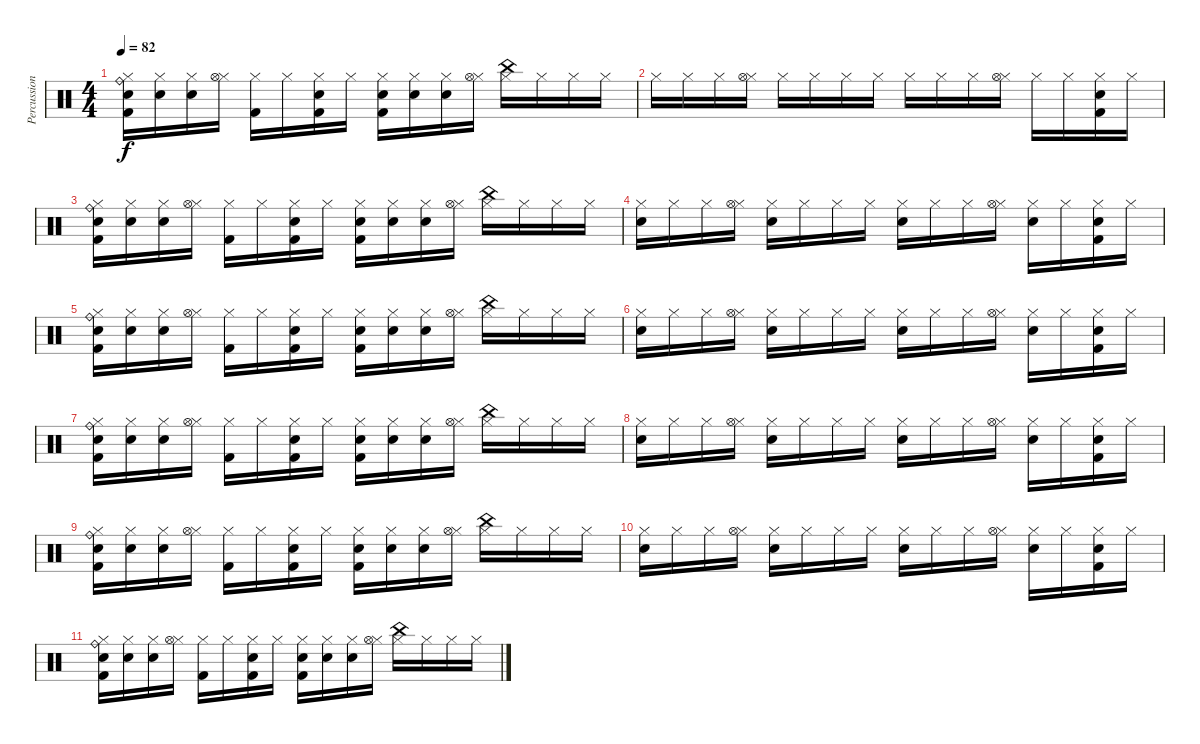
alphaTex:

\track ("Percussions" "Percussion") {instrument percussion}
\staff {score}
\articulation defaults
\ts (4 4)
\tempo 82
\clef neutral
\ks c
("Ride (bell)" "Hi-Hat (closed)" "Electric Snare (hit)" "Kick (hit) 2").16{dy f} ("Hi-Hat (closed)" "Electric Snare (hit)").16 ("Hi-Hat (closed)" "Electric Snare (hit)").16 ("Hi-Hat (closed)" "Hi-Hat (open)").16 ("Hi-Hat (closed)" "Kick (hit) 2").16 "Hi-Hat (closed)".16 ("Hi-Hat (closed)" "Electric Snare (hit)" "Kick (hit) 2").16 "Hi-Hat (closed)".16 ("Hi-Hat (closed)" "Electric Snare (hit)" "Kick (hit) 2").16 ("Hi-Hat (closed)" "Electric Snare (hit)").16 ("Hi-Hat (closed)" "Electric Snare (hit)").16 ("Hi-Hat (closed)" "Hi-Hat (open)").16 ("Hi-Hat (closed)" "China (hit)").16 "Hi-Hat (closed)".16 "Hi-Hat (closed)".16 "Hi-Hat (closed)".16 |
"Hi-Hat (closed)".16 "Hi-Hat (closed)".16 "Hi-Hat (closed)".16 ("Hi-Hat (closed)" "Hi-Hat (open)").16 "Hi-Hat (closed)".16 "Hi-Hat (closed)".16 "Hi-Hat (closed)".16 "Hi-Hat (closed)".16 "Hi-Hat (closed)".16 "Hi-Hat (closed)".16 "Hi-Hat (closed)".16 ("Hi-Hat (closed)" "Hi-Hat (open)").16 "Hi-Hat (closed)".16 "Hi-Hat (closed)".16 ("Hi-Hat (closed)" "Electric Snare (hit)" "Kick (hit) 2").16 "Hi-Hat (closed)".16 |
("Ride (bell)" "Hi-Hat (closed)" "Electric Snare (hit)" "Kick (hit) 2").16 ("Hi-Hat (closed)" "Electric Snare (hit)").16 ("Hi-Hat (closed)" "Electric Snare (hit)").16 ("Hi-Hat (closed)" "Hi-Hat (open)").16 ("Hi-Hat (closed)" "Kick (hit) 2").16 "Hi-Hat (closed)".16 ("Hi-Hat (closed)" "Electric Snare (hit)" "Kick (hit) 2").16 "Hi-Hat (closed)".16 ("Hi-Hat (closed)" "Electric Snare (hit)" "Kick (hit) 2").16 ("Hi-Hat (closed)" "Electric Snare (hit)").16 ("Hi-Hat (closed)" "Electric Snare (hit)").16 ("Hi-Hat (closed)" "Hi-Hat (open)").16 ("Hi-Hat (closed)" "China (hit)").16 "Hi-Hat (closed)".16 "Hi-Hat (closed)".16 "Hi-Hat (closed)".16 |
("Hi-Hat (closed)" "Snare (hit) 2").16 "Hi-Hat (closed)".16 "Hi-Hat (closed)".16 ("Hi-Hat (closed)" "Hi-Hat (open)").16 ("Hi-Hat (closed)" "Snare (hit) 2").16 "Hi-Hat (closed)".16 "Hi-Hat (closed)".16 "Hi-Hat (closed)".16 ("Hi-Hat (closed)" "Snare (hit) 2").16 "Hi-Hat (closed)".16 "Hi-Hat (closed)".16 ("Hi-Hat (closed)" "Hi-Hat (open)").16 ("Hi-Hat (closed)" "Snare (hit) 2").16 "Hi-Hat (closed)".16 ("Hi-Hat (closed)" "Electric Snare (hit)" "Kick (hit) 2").16 "Hi-Hat (closed)".16 |
("Ride (bell)" "Hi-Hat (closed)" "Electric Snare (hit)" "Kick (hit) 2").16 ("Hi-Hat (closed)" "Electric Snare (hit)").16 ("Hi-Hat (closed)" "Electric Snare (hit)").16 ("Hi-Hat (closed)" "Hi-Hat (open)").16 ("Hi-Hat (closed)" "Kick (hit) 2").16 "Hi-Hat (closed)".16 ("Hi-Hat (closed)" "Electric Snare (hit)" "Kick (hit) 2").16 "Hi-Hat (closed)".16 ("Hi-Hat (closed)" "Electric Snare (hit)" "Kick (hit) 2").16 ("Hi-Hat (closed)" "Electric Snare (hit)").16 ("Hi-Hat (closed)" "Electric Snare (hit)").16 ("Hi-Hat (closed)" "Hi-Hat (open)").16 ("Hi-Hat (closed)" "China (hit)").16 "Hi-Hat (closed)".16 "Hi-Hat (closed)".16 "Hi-Hat (closed)".16 |
("Hi-Hat (closed)" "Snare (hit) 2").16 "Hi-Hat (closed)".16 "Hi-Hat (closed)".16 ("Hi-Hat (closed)" "Hi-Hat (open)").16 ("Hi-Hat (closed)" "Snare (hit) 2").16 "Hi-Hat (closed)".16 "Hi-Hat (closed)".16 "Hi-Hat (closed)".16 ("Hi-Hat (closed)" "Snare (hit) 2").16 "Hi-Hat (closed)".16 "Hi-Hat (closed)".16 ("Hi-Hat (closed)" "Hi-Hat (open)").16 ("Hi-Hat (closed)" "Snare (hit) 2").16 "Hi-Hat (closed)".16 ("Hi-Hat (closed)" "Electric Snare (hit)" "Kick (hit) 2").16 "Hi-Hat (closed)".16 |
("Ride (bell)" "Hi-Hat (closed)" "Electric Snare (hit)" "Kick (hit) 2").16 ("Hi-Hat (closed)" "Electric Snare (hit)").16 ("Hi-Hat (closed)" "Electric Snare (hit)").16 ("Hi-Hat (closed)" "Hi-Hat (open)").16 ("Hi-Hat (closed)" "Kick (hit) 2").16 "Hi-Hat (closed)".16 ("Hi-Hat (closed)" "Electric Snare (hit)" "Kick (hit) 2").16 "Hi-Hat (closed)".16 ("Hi-Hat (closed)" "Electric Snare (hit)" "Kick (hit) 2").16 ("Hi-Hat (closed)" "Electric Snare (hit)").16 ("Hi-Hat (closed)" "Electric Snare (hit)").16 ("Hi-Hat (closed)" "Hi-Hat (open)").16 ("Hi-Hat (closed)" "China (hit)").16 "Hi-Hat (closed)".16 "Hi-Hat (closed)".16 "Hi-Hat (closed)".16 |
("Hi-Hat (closed)" "Snare (hit) 2").16 "Hi-Hat (closed)".16 "Hi-Hat (closed)".16 ("Hi-Hat (closed)" "Hi-Hat (open)").16 ("Hi-Hat (closed)" "Snare (hit) 2").16 "Hi-Hat (closed)".16 "Hi-Hat (closed)".16 "Hi-Hat (closed)".16 ("Hi-Hat (closed)" "Snare (hit) 2").16 "Hi-Hat (closed)".16 "Hi-Hat (closed)".16 ("Hi-Hat (closed)" "Hi-Hat (open)").16 ("Hi-Hat (closed)" "Snare (hit) 2").16 "Hi-Hat (closed)".16 ("Hi-Hat (closed)" "Electric Snare (hit)" "Kick (hit) 2").16 "Hi-Hat (closed)".16 |
("Ride (bell)" "Hi-Hat (closed)" "Electric Snare (hit)" "Kick (hit) 2").16 ("Hi-Hat (closed)" "Electric Snare (hit)").16 ("Hi-Hat (closed)" "Electric Snare (hit)").16 ("Hi-Hat (closed)" "Hi-Hat (open)").16 ("Hi-Hat (closed)" "Kick (hit) 2").16 "Hi-Hat (closed)".16 ("Hi-Hat (closed)" "Electric Snare (hit)" "Kick (hit) 2").16 "Hi-Hat (closed)".16 ("Hi-Hat (closed)" "Electric Snare (hit)" "Kick (hit) 2").16 ("Hi-Hat (closed)" "Electric Snare (hit)").16 ("Hi-Hat (closed)" "Electric Snare (hit)").16 ("Hi-Hat (closed)" "Hi-Hat (open)").16 ("Hi-Hat (closed)" "China (hit)").16 "Hi-Hat (closed)".16 "Hi-Hat (closed)".16 "Hi-Hat (closed)".16 |
("Hi-Hat (closed)" "Snare (hit) 2").16 "Hi-Hat (closed)".16 "Hi-Hat (closed)".16 ("Hi-Hat (closed)" "Hi-Hat (open)").16 ("Hi-Hat (closed)" "Snare (hit) 2").16 "Hi-Hat (closed)".16 "Hi-Hat (closed)".16 "Hi-Hat (closed)".16 ("Hi-Hat (closed)" "Snare (hit) 2").16 "Hi-Hat (closed)".16 "Hi-Hat (closed)".16 ("Hi-Hat (closed)" "Hi-Hat (open)").16 ("Hi-Hat (closed)" "Snare (hit) 2").16 "Hi-Hat (closed)".16 ("Hi-Hat (closed)" "Electric Snare (hit)" "Kick (hit) 2").16 "Hi-Hat (closed)".16 |
("Ride (bell)" "Hi-Hat (closed)" "Electric Snare (hit)" "Kick (hit) 2").16 ("Hi-Hat (closed)" "Electric Snare (hit)").16 ("Hi-Hat (closed)" "Electric Snare (hit)").16 ("Hi-Hat (closed)" "Hi-Hat (open)").16 ("Hi-Hat (closed)" "Kick (hit) 2").16 "Hi-Hat (closed)".16 ("Hi-Hat (closed)" "Electric Snare (hit)" "Kick (hit) 2").16 "Hi-Hat (closed)".16 ("Hi-Hat (closed)" "Electric Snare (hit)" "Kick (hit) 2").16 ("Hi-Hat (closed)" "Electric Snare (hit)").16 ("Hi-Hat (closed)" "Electric Snare (hit)").16 ("Hi-Hat (closed)" "Hi-Hat (open)").16 ("Hi-Hat (closed)" "China (hit)").16 "Hi-Hat (closed)".16 "Hi-Hat (closed)".16 "Hi-Hat (closed)".16
